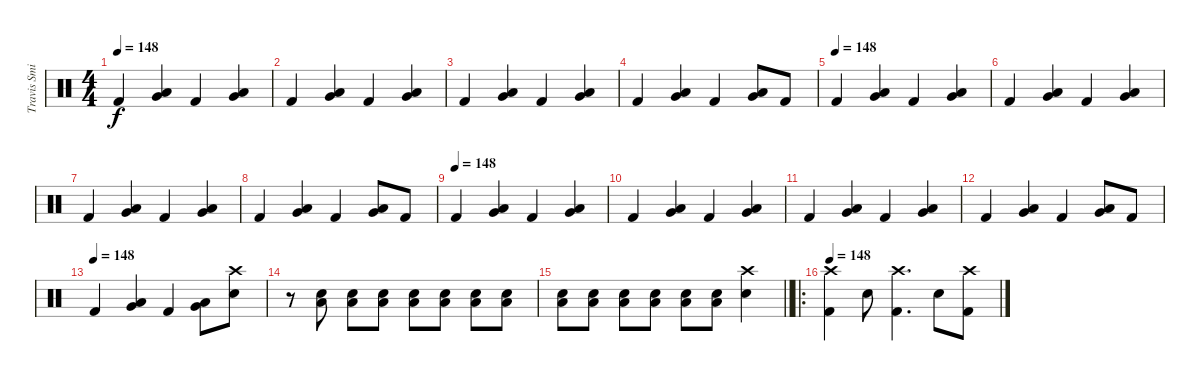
\track ("Travis Smith" "Travis Smi") {instrument percussion}
\staff {score}
\articulation defaults
\ts (4 4)
\tempo 148
\clef neutral
\ks c "Kick (hit) 2".4{dy f}
("Low Tom (hit)" "Very Low Tom (hit)").4 "Kick (hit) 2".4 ("Low Tom (hit)" "Very Low Tom (hit)").4 |
"Kick (hit) 2".4 ("Low Tom (hit)" "Very Low Tom (hit)").4 "Kick (hit) 2".4 ("Low Tom (hit)" "Very Low Tom (hit)").4 |
"Kick (hit) 2".4 ("Low Tom (hit)" "Very Low Tom (hit)").4 "Kick (hit) 2".4 ("Low Tom (hit)" "Very Low Tom (hit)").4 |
"Kick (hit) 2".4 ("Low Tom (hit)" "Very Low Tom (hit)").4 "Kick (hit) 2".4 ("Low Tom (hit)" "Very Low Tom (hit)").8 "Kick (hit) 2".8 |
\tempo (148)
"Kick (hit) 2".4 ("Low Tom (hit)" "Very Low Tom (hit)").4 "Kick (hit) 2".4 ("Low Tom (hit)" "Very Low Tom (hit)").4 |
"Kick (hit) 2".4 ("Low Tom (hit)" "Very Low Tom (hit)").4 "Kick (hit) 2".4 ("Low Tom (hit)" "Very Low Tom (hit)").4 |
"Kick (hit) 2".4 ("Low Tom (hit)" "Very Low Tom (hit)").4 "Kick (hit) 2".4 ("Low Tom (hit)" "Very Low Tom (hit)").4 |
"Kick (hit) 2".4 ("Low Tom (hit)" "Very Low Tom (hit)").4 "Kick (hit) 2".4 ("Low Tom (hit)" "Very Low Tom (hit)").8 "Kick (hit) 2".8 |
\tempo (148)
"Kick (hit) 2".4 ("Low Tom (hit)" "Very Low Tom (hit)").4 "Kick (hit) 2".4 ("Low Tom (hit)" "Very Low Tom (hit)").4 |
"Kick (hit) 2".4 ("Low Tom (hit)" "Very Low Tom (hit)").4 "Kick (hit) 2".4 ("Low Tom (hit)" "Very Low Tom (hit)").4 |
"Kick (hit) 2".4 ("Low Tom (hit)" "Very Low Tom (hit)").4 "Kick (hit) 2".4 ("Low Tom (hit)" "Very Low Tom (hit)").4 |
"Kick (hit) 2".4 ("Low Tom (hit)" "Very Low Tom (hit)").4 "Kick (hit) 2".4 ("Low Tom (hit)" "Very Low Tom (hit)").8 "Kick (hit) 2".8 |
\tempo (148)
"Kick (hit) 2".4 ("Low Tom (hit)" "Very Low Tom (hit)").4 "Kick (hit) 2".4 ("Low Tom (hit)" "Very Low Tom (hit)").8 ("Snare (hit) 2" "Crash high (hit)").8 |
r.8 ("Snare (hit) 2" "Low Floor Tom (hit)").8 ("Snare (hit) 2" "Low Floor Tom (hit)").8 ("Snare (hit) 2" "Low Floor Tom (hit)").8 ("Snare (hit) 2" "Low Floor Tom (hit)").8 ("Snare (hit) 2" "Low Floor Tom (hit)").8 ("Snare (hit) 2" "Low Floor Tom (hit)").8 ("Snare (hit) 2" "Low Floor Tom (hit)").8 |
\barLineRight lightlight
("Snare (hit) 2" "Low Floor Tom (hit)").8 ("Snare (hit) 2" "Low Floor Tom (hit)").8 ("Snare (hit) 2" "Low Floor Tom (hit)").8 ("Snare (hit) 2" "Low Floor Tom (hit)").8 ("Snare (hit) 2" "Low Floor Tom (hit)").8 ("Snare (hit) 2" "Low Floor Tom (hit)").8 ("Snare (hit) 2" "Crash high (hit)").4 |
\ro
\tempo 148
("Kick (hit) 2" "Crash high (hit)").4 "Snare (hit) 2".8 ("Kick (hit) 2" "Crash high (hit)").4{d} "Snare (hit) 2".8 ("Kick (hit) 2" "Crash high (hit)").8
